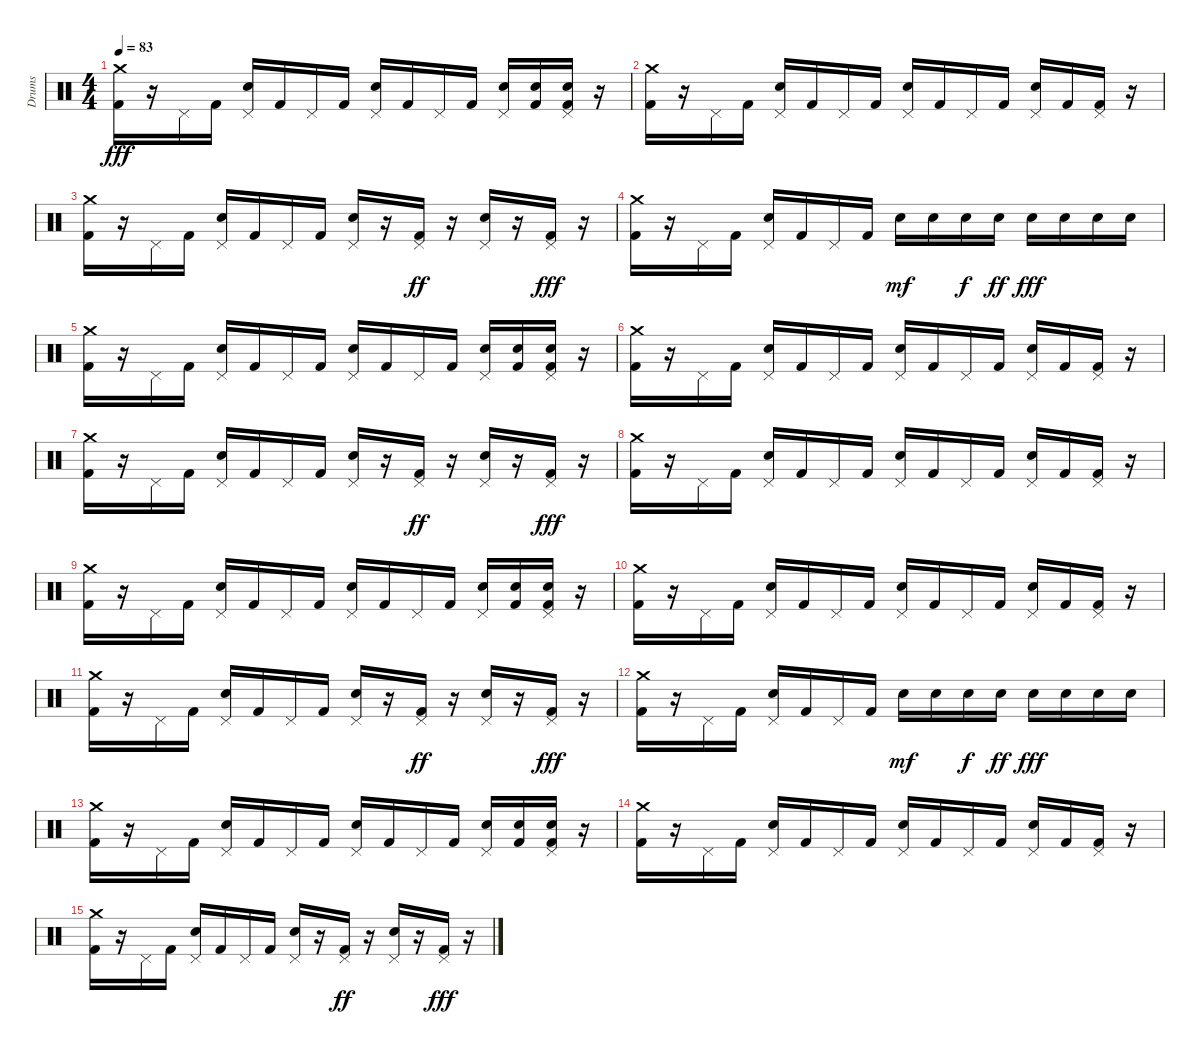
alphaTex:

\track ("Drums" "Drums") {instrument percussion}
\staff {score}
\articulation defaults
\ts (4 4)
\tempo 83
\clef neutral
\ks c
("Crash medium (hit)" "Kick (hit) 2").16{dy fff} r.16 "Pedal Hi-Hat (hit)".16 "Kick (hit) 2".16 ("Pedal Hi-Hat (hit)" "Snare (hit) 2").16 "Kick (hit) 2".16 "Pedal Hi-Hat (hit)".16 "Kick (hit) 2".16 ("Pedal Hi-Hat (hit)" "Snare (hit) 2").16 "Kick (hit) 2".16 "Pedal Hi-Hat (hit)".16 "Kick (hit) 2".16 ("Pedal Hi-Hat (hit)" "Snare (hit) 2").16 ("Snare (hit) 2" "Kick (hit) 2").16 ("Pedal Hi-Hat (hit)" "Snare (hit) 2" "Kick (hit) 2").16 r.16 |
("Crash medium (hit)" "Kick (hit) 2").16 r.16 "Pedal Hi-Hat (hit)".16 "Kick (hit) 2".16 ("Pedal Hi-Hat (hit)" "Snare (hit) 2").16 "Kick (hit) 2".16 "Pedal Hi-Hat (hit)".16 "Kick (hit) 2".16 ("Pedal Hi-Hat (hit)" "Snare (hit) 2").16 "Kick (hit) 2".16 "Pedal Hi-Hat (hit)".16 "Kick (hit) 2".16 ("Pedal Hi-Hat (hit)" "Snare (hit) 2").16 "Kick (hit) 2".16 ("Pedal Hi-Hat (hit)" "Kick (hit) 2").16 r.16 |
("Crash medium (hit)" "Kick (hit) 2").16 r.16 "Pedal Hi-Hat (hit)".16 "Kick (hit) 2".16 ("Pedal Hi-Hat (hit)" "Snare (hit) 2").16 "Kick (hit) 2".16 "Pedal Hi-Hat (hit)".16 "Kick (hit) 2".16 ("Pedal Hi-Hat (hit)" "Snare (hit) 2").16 r.16 ("Pedal Hi-Hat (hit)" "Kick (hit) 2").16{dy ff} r.16 ("Pedal Hi-Hat (hit)" "Snare (hit) 2").16 r.16 ("Pedal Hi-Hat (hit)" "Kick (hit) 2").16{dy fff} r.16 |
("Crash medium (hit)" "Kick (hit) 2").16 r.16 "Pedal Hi-Hat (hit)".16 "Kick (hit) 2".16 ("Pedal Hi-Hat (hit)" "Snare (hit) 2").16 "Kick (hit) 2".16 "Pedal Hi-Hat (hit)".16 "Kick (hit) 2".16 "Snare (hit) 2".16{dy mf} "Snare (hit) 2".16 "Snare (hit) 2".16{dy f} "Snare (hit) 2".16{dy ff} "Snare (hit) 2".16{dy fff} "Snare (hit) 2".16 "Snare (hit) 2".16 "Snare (hit) 2".16 |
("Crash medium (hit)" "Kick (hit) 2").16 r.16 "Pedal Hi-Hat (hit)".16 "Kick (hit) 2".16 ("Pedal Hi-Hat (hit)" "Snare (hit) 2").16 "Kick (hit) 2".16 "Pedal Hi-Hat (hit)".16 "Kick (hit) 2".16 ("Pedal Hi-Hat (hit)" "Snare (hit) 2").16 "Kick (hit) 2".16 "Pedal Hi-Hat (hit)".16 "Kick (hit) 2".16 ("Pedal Hi-Hat (hit)" "Snare (hit) 2").16 ("Snare (hit) 2" "Kick (hit) 2").16 ("Pedal Hi-Hat (hit)" "Snare (hit) 2" "Kick (hit) 2").16 r.16 |
("Crash medium (hit)" "Kick (hit) 2").16 r.16 "Pedal Hi-Hat (hit)".16 "Kick (hit) 2".16 ("Pedal Hi-Hat (hit)" "Snare (hit) 2").16 "Kick (hit) 2".16 "Pedal Hi-Hat (hit)".16 "Kick (hit) 2".16 ("Pedal Hi-Hat (hit)" "Snare (hit) 2").16 "Kick (hit) 2".16 "Pedal Hi-Hat (hit)".16 "Kick (hit) 2".16 ("Pedal Hi-Hat (hit)" "Snare (hit) 2").16 "Kick (hit) 2".16 ("Pedal Hi-Hat (hit)" "Kick (hit) 2").16 r.16 |
("Crash medium (hit)" "Kick (hit) 2").16 r.16 "Pedal Hi-Hat (hit)".16 "Kick (hit) 2".16 ("Pedal Hi-Hat (hit)" "Snare (hit) 2").16 "Kick (hit) 2".16 "Pedal Hi-Hat (hit)".16 "Kick (hit) 2".16 ("Pedal Hi-Hat (hit)" "Snare (hit) 2").16 r.16 ("Pedal Hi-Hat (hit)" "Kick (hit) 2").16{dy ff} r.16 ("Pedal Hi-Hat (hit)" "Snare (hit) 2").16 r.16 ("Pedal Hi-Hat (hit)" "Kick (hit) 2").16{dy fff} r.16 |
("Crash medium (hit)" "Kick (hit) 2").16{volume 5} r.16 "Pedal Hi-Hat (hit)".16 "Kick (hit) 2".16 ("Pedal Hi-Hat (hit)" "Snare (hit) 2").16 "Kick (hit) 2".16 "Pedal Hi-Hat (hit)".16 "Kick (hit) 2".16 ("Pedal Hi-Hat (hit)" "Snare (hit) 2").16 "Kick (hit) 2".16 "Pedal Hi-Hat (hit)".16 "Kick (hit) 2".16 ("Pedal Hi-Hat (hit)" "Snare (hit) 2").16 "Kick (hit) 2".16 ("Pedal Hi-Hat (hit)" "Kick (hit) 2").16 r.16 |
("Crash medium (hit)" "Kick (hit) 2").16 r.16 "Pedal Hi-Hat (hit)".16 "Kick (hit) 2".16 ("Pedal Hi-Hat (hit)" "Snare (hit) 2").16 "Kick (hit) 2".16 "Pedal Hi-Hat (hit)".16 "Kick (hit) 2".16 ("Pedal Hi-Hat (hit)" "Snare (hit) 2").16 "Kick (hit) 2".16 "Pedal Hi-Hat (hit)".16 "Kick (hit) 2".16 ("Pedal Hi-Hat (hit)" "Snare (hit) 2").16 ("Snare (hit) 2" "Kick (hit) 2").16 ("Pedal Hi-Hat (hit)" "Snare (hit) 2" "Kick (hit) 2").16 r.16 |
("Crash medium (hit)" "Kick (hit) 2").16 r.16 "Pedal Hi-Hat (hit)".16 "Kick (hit) 2".16 ("Pedal Hi-Hat (hit)" "Snare (hit) 2").16 "Kick (hit) 2".16 "Pedal Hi-Hat (hit)".16 "Kick (hit) 2".16 ("Pedal Hi-Hat (hit)" "Snare (hit) 2").16 "Kick (hit) 2".16 "Pedal Hi-Hat (hit)".16 "Kick (hit) 2".16 ("Pedal Hi-Hat (hit)" "Snare (hit) 2").16 "Kick (hit) 2".16 ("Pedal Hi-Hat (hit)" "Kick (hit) 2").16 r.16 |
("Crash medium (hit)" "Kick (hit) 2").16 r.16 "Pedal Hi-Hat (hit)".16 "Kick (hit) 2".16 ("Pedal Hi-Hat (hit)" "Snare (hit) 2").16 "Kick (hit) 2".16 "Pedal Hi-Hat (hit)".16 "Kick (hit) 2".16 ("Pedal Hi-Hat (hit)" "Snare (hit) 2").16 r.16 ("Pedal Hi-Hat (hit)" "Kick (hit) 2").16{dy ff} r.16 ("Pedal Hi-Hat (hit)" "Snare (hit) 2").16 r.16 ("Pedal Hi-Hat (hit)" "Kick (hit) 2").16{dy fff} r.16 |
("Crash medium (hit)" "Kick (hit) 2").16{volume 0} r.16 "Pedal Hi-Hat (hit)".16 "Kick (hit) 2".16 ("Pedal Hi-Hat (hit)" "Snare (hit) 2").16 "Kick (hit) 2".16 "Pedal Hi-Hat (hit)".16 "Kick (hit) 2".16 "Snare (hit) 2".16{dy mf} "Snare (hit) 2".16 "Snare (hit) 2".16{dy f} "Snare (hit) 2".16{dy ff} "Snare (hit) 2".16{dy fff} "Snare (hit) 2".16 "Snare (hit) 2".16 "Snare (hit) 2".16 |
("Crash medium (hit)" "Kick (hit) 2").16 r.16 "Pedal Hi-Hat (hit)".16 "Kick (hit) 2".16 ("Pedal Hi-Hat (hit)" "Snare (hit) 2").16 "Kick (hit) 2".16 "Pedal Hi-Hat (hit)".16 "Kick (hit) 2".16 ("Pedal Hi-Hat (hit)" "Snare (hit) 2").16 "Kick (hit) 2".16 "Pedal Hi-Hat (hit)".16 "Kick (hit) 2".16 ("Pedal Hi-Hat (hit)" "Snare (hit) 2").16 ("Snare (hit) 2" "Kick (hit) 2").16 ("Pedal Hi-Hat (hit)" "Snare (hit) 2" "Kick (hit) 2").16 r.16 |
("Crash medium (hit)" "Kick (hit) 2").16 r.16 "Pedal Hi-Hat (hit)".16 "Kick (hit) 2".16 ("Pedal Hi-Hat (hit)" "Snare (hit) 2").16 "Kick (hit) 2".16 "Pedal Hi-Hat (hit)".16 "Kick (hit) 2".16 ("Pedal Hi-Hat (hit)" "Snare (hit) 2").16 "Kick (hit) 2".16 "Pedal Hi-Hat (hit)".16 "Kick (hit) 2".16 ("Pedal Hi-Hat (hit)" "Snare (hit) 2").16 "Kick (hit) 2".16 ("Pedal Hi-Hat (hit)" "Kick (hit) 2").16 r.16 |
("Crash medium (hit)" "Kick (hit) 2").16 r.16 "Pedal Hi-Hat (hit)".16 "Kick (hit) 2".16 ("Pedal Hi-Hat (hit)" "Snare (hit) 2").16 "Kick (hit) 2".16 "Pedal Hi-Hat (hit)".16 "Kick (hit) 2".16 ("Pedal Hi-Hat (hit)" "Snare (hit) 2").16 r.16 ("Pedal Hi-Hat (hit)" "Kick (hit) 2").16{dy ff} r.16 ("Pedal Hi-Hat (hit)" "Snare (hit) 2").16 r.16 ("Pedal Hi-Hat (hit)" "Kick (hit) 2").16{dy fff} r.16
